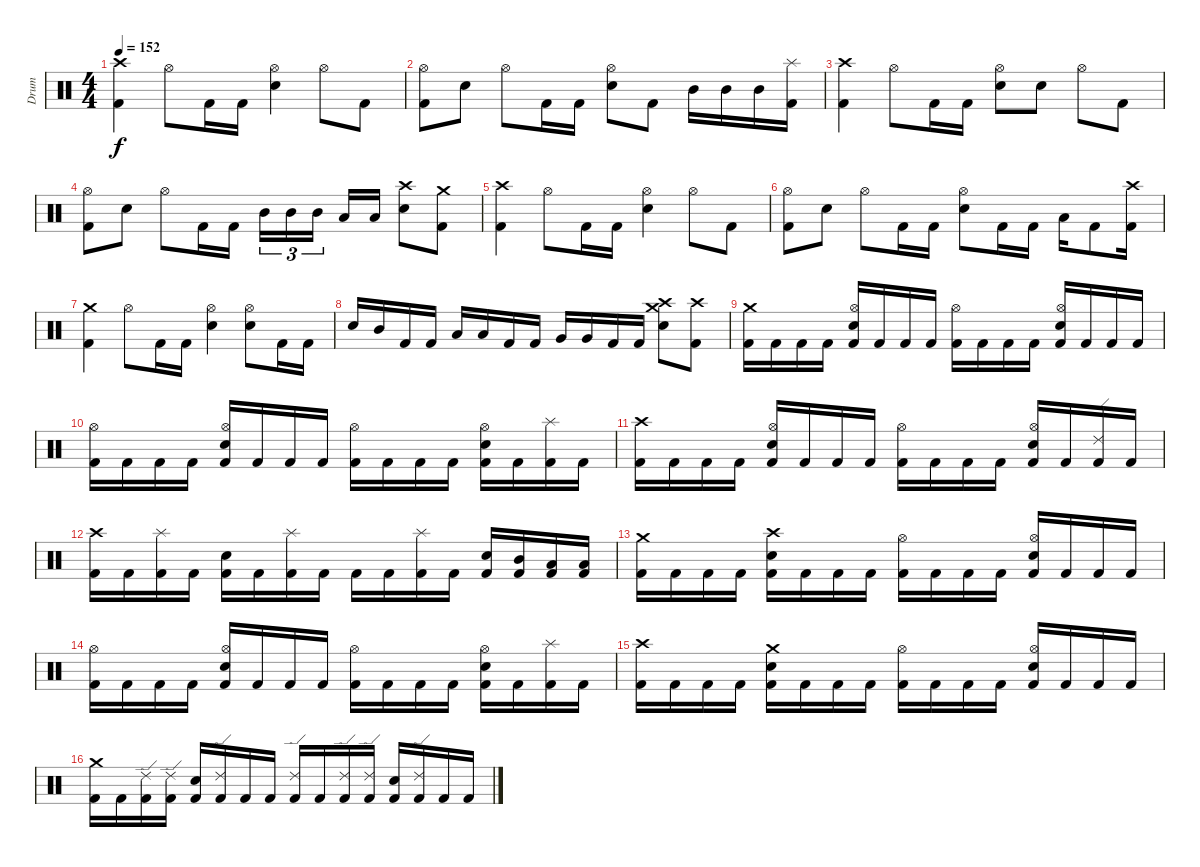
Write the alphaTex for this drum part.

\track ("Drum" "Drum") {instrument percussion}
\staff {score}
\articulation defaults
\ts (4 4)
\tempo 152
\clef neutral
\ks c
("Crash high (hit)" "Kick (hit) 2").4{dy f} "Hi-Hat (open)".8 "Kick (hit) 2".16 "Kick (hit) 2".16 ("Hi-Hat (open)" "Snare (hit) 2").4 "Hi-Hat (open)".8 "Kick (hit) 2".8 |
("Hi-Hat (open)" "Kick (hit) 2").8 "Snare (hit) 2".8 "Hi-Hat (open)".8 "Kick (hit) 2".16 "Kick (hit) 2".16 ("Hi-Hat (open)" "Snare (hit) 2").8 "Kick (hit) 2".8 "Mid Tom (hit)".16 "Mid Tom (hit)".16 "Mid Tom (hit)".16 ("Splash (hit)" "Kick (hit) 2").16 |
("Crash high (hit)" "Kick (hit) 2").4 "Hi-Hat (open)".8 "Kick (hit) 2".16 "Kick (hit) 2".16 ("Hi-Hat (open)" "Snare (hit) 2").8 "Snare (hit) 2".8 "Hi-Hat (open)".8 "Kick (hit) 2".8 |
("Hi-Hat (open)" "Kick (hit) 2").8 "Snare (hit) 2".8 "Hi-Hat (open)".8 "Kick (hit) 2".16 "Kick (hit) 2".16 "Mid Tom (hit)".16{tu (3 2)} "Mid Tom (hit)".16{tu (3 2)} "Mid Tom (hit)".16{tu (3 2) beam splitsecondary} "Low Tom (hit)".16 "Low Tom (hit)".16 ("Crash high (hit)" "Snare (hit) 2").8 ("Crash medium (hit)" "Kick (hit) 2").8 |
("Crash high (hit)" "Kick (hit) 2").4 "Hi-Hat (open)".8 "Kick (hit) 2".16 "Kick (hit) 2".16 ("Hi-Hat (open)" "Snare (hit) 2").4 "Hi-Hat (open)".8 "Kick (hit) 2".8 |
("Hi-Hat (open)" "Kick (hit) 2").8 "Snare (hit) 2".8 "Hi-Hat (open)".8 "Kick (hit) 2".16 "Kick (hit) 2".16 ("Hi-Hat (open)" "Snare (hit) 2").8 "Kick (hit) 2".16 "Kick (hit) 2".16 "Low Tom (hit)".16 "Kick (hit) 2".8 ("Crash high (hit)" "Kick (hit) 2").16 |
("Crash medium (hit)" "Kick (hit) 2").4 "Hi-Hat (open)".8 "Kick (hit) 2".16 "Kick (hit) 2".16 ("Hi-Hat (open)" "Snare (hit) 2").4 ("Hi-Hat (open)" "Snare (hit) 2").8 "Kick (hit) 2".16 "Kick (hit) 2".16 |
"Snare (hit) 2".16 "Mid Tom (hit)".16 "Kick (hit) 2".16 "Kick (hit) 2".16 "Low Tom (hit)".16 "Low Tom (hit)".16 "Kick (hit) 2".16 "Kick (hit) 2".16 "Very Low Tom (hit)".16 "Very Low Tom (hit)".16 "Kick (hit) 2".16 "Kick (hit) 2".16 ("Crash medium (hit)" "Crash high (hit)" "Snare (hit) 2").8 ("Crash high (hit)" "Kick (hit) 2").8 |
("Crash medium (hit)" "Kick (hit) 2").16 "Kick (hit) 2".16 "Kick (hit) 2".16 "Kick (hit) 2".16 ("Hi-Hat (open)" "Snare (hit) 2" "Kick (hit) 2").16 "Kick (hit) 2".16 "Kick (hit) 2".16 "Kick (hit) 2".16 ("Hi-Hat (open)" "Kick (hit) 2").16 "Kick (hit) 2".16 "Kick (hit) 2".16 "Kick (hit) 2".16 ("Hi-Hat (open)" "Snare (hit) 2" "Kick (hit) 2").16 "Kick (hit) 2".16 "Kick (hit) 2".16 "Kick (hit) 2".16 |
("Hi-Hat (open)" "Kick (hit) 2").16 "Kick (hit) 2".16 "Kick (hit) 2".16 "Kick (hit) 2".16 ("Hi-Hat (open)" "Snare (hit) 2" "Kick (hit) 2").16 "Kick (hit) 2".16 "Kick (hit) 2".16 "Kick (hit) 2".16 ("Hi-Hat (open)" "Kick (hit) 2").16 "Kick (hit) 2".16 "Kick (hit) 2".16 "Kick (hit) 2".16 ("Hi-Hat (open)" "Snare (hit) 2" "Kick (hit) 2").16 "Kick (hit) 2".16 ("Splash (hit)" "Kick (hit) 2").16 "Kick (hit) 2".16 |
("Crash high (hit)" "Kick (hit) 2").16 "Kick (hit) 2".16 "Kick (hit) 2".16 "Kick (hit) 2".16 ("Hi-Hat (open)" "Snare (hit) 2" "Kick (hit) 2").16 "Kick (hit) 2".16 "Kick (hit) 2".16 "Kick (hit) 2".16 ("Hi-Hat (open)" "Kick (hit) 2").16 "Kick (hit) 2".16 "Kick (hit) 2".16 "Kick (hit) 2".16 ("Hi-Hat (open)" "Snare (hit) 2" "Kick (hit) 2").16 "Kick (hit) 2".16 ("Ride (edge) 2" "Kick (hit) 2").16 "Kick (hit) 2".16 |
("Crash high (hit)" "Kick (hit) 2").16 "Kick (hit) 2".16 ("Splash (hit)" "Kick (hit) 2").16 "Kick (hit) 2".16 ("Snare (hit) 2" "Kick (hit) 2").16 "Kick (hit) 2".16 ("Splash (hit)" "Kick (hit) 2").16 "Kick (hit) 2".16 "Kick (hit) 2".16 "Kick (hit) 2".16 ("Splash (hit)" "Kick (hit) 2").16 "Kick (hit) 2".16 ("Snare (hit) 2" "Kick (hit) 2").16 ("Mid Tom (hit)" "Kick (hit) 2").16 ("Low Tom (hit)" "Kick (hit) 2").16 ("Low Tom (hit)" "Kick (hit) 2").16 |
("Crash medium (hit)" "Kick (hit) 2").16 "Kick (hit) 2".16 "Kick (hit) 2".16 "Kick (hit) 2".16 ("Crash high (hit)" "Snare (hit) 2" "Kick (hit) 2").16 "Kick (hit) 2".16 "Kick (hit) 2".16 "Kick (hit) 2".16 ("Hi-Hat (open)" "Kick (hit) 2").16 "Kick (hit) 2".16 "Kick (hit) 2".16 "Kick (hit) 2".16 ("Hi-Hat (open)" "Snare (hit) 2" "Kick (hit) 2").16 "Kick (hit) 2".16 "Kick (hit) 2".16 "Kick (hit) 2".16 |
("Hi-Hat (open)" "Kick (hit) 2").16 "Kick (hit) 2".16 "Kick (hit) 2".16 "Kick (hit) 2".16 ("Hi-Hat (open)" "Snare (hit) 2" "Kick (hit) 2").16 "Kick (hit) 2".16 "Kick (hit) 2".16 "Kick (hit) 2".16 ("Hi-Hat (open)" "Kick (hit) 2").16 "Kick (hit) 2".16 "Kick (hit) 2".16 "Kick (hit) 2".16 ("Hi-Hat (open)" "Snare (hit) 2" "Kick (hit) 2").16 "Kick (hit) 2".16 ("Splash (hit)" "Kick (hit) 2").16 "Kick (hit) 2".16 |
("Crash high (hit)" "Kick (hit) 2").16 "Kick (hit) 2".16 "Kick (hit) 2".16 "Kick (hit) 2".16 ("Crash medium (hit)" "Snare (hit) 2" "Kick (hit) 2").16 "Kick (hit) 2".16 "Kick (hit) 2".16 "Kick (hit) 2".16 ("Hi-Hat (open)" "Kick (hit) 2").16 "Kick (hit) 2".16 "Kick (hit) 2".16 "Kick (hit) 2".16 ("Hi-Hat (open)" "Snare (hit) 2" "Kick (hit) 2").16 "Kick (hit) 2".16 "Kick (hit) 2".16 "Kick (hit) 2".16 |
("Crash medium (hit)" "Kick (hit) 2").16 "Kick (hit) 2".16 ("Ride (edge) 2" "Kick (hit) 2").16 ("Ride (edge) 2" "Kick (hit) 2").16 ("Snare (hit) 2" "Kick (hit) 2").16 ("Ride (edge) 2" "Kick (hit) 2").16 "Kick (hit) 2".16 "Kick (hit) 2".16 ("Ride (edge) 2" "Kick (hit) 2").16 "Kick (hit) 2".16 ("Ride (edge) 2" "Kick (hit) 2").16 ("Ride (edge) 2" "Kick (hit) 2").16 ("Snare (hit) 2" "Kick (hit) 2").16 ("Ride (edge) 2" "Kick (hit) 2").16 "Kick (hit) 2".16 "Kick (hit) 2".16
